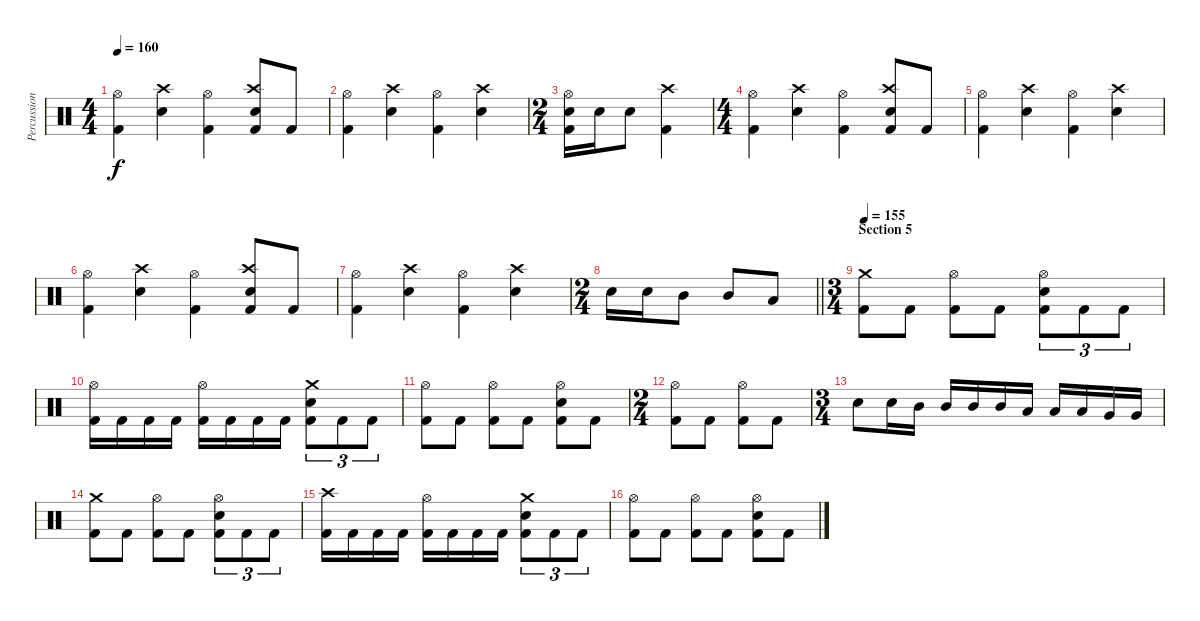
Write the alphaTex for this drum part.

\track ("Percussion" "Percussion") {instrument percussion}
\staff {score}
\articulation defaults
\ts (4 4)
\tempo 160
\clef neutral
\ks c
("Hi-Hat (open)" "Kick (hit) 2").4{dy f} ("Crash high (hit)" "Electric Snare (hit)").4 ("Hi-Hat (open)" "Kick (hit) 2").4 ("Crash high (hit)" "Electric Snare (hit)" "Kick (hit) 2").8 "Kick (hit) 2".8 |
("Hi-Hat (open)" "Kick (hit) 2").4 ("Crash high (hit)" "Electric Snare (hit)").4 ("Hi-Hat (open)" "Kick (hit) 2").4 ("Crash high (hit)" "Electric Snare (hit)").4 |
\ts (2 4)
("Hi-Hat (open)" "Electric Snare (hit)" "Kick (hit) 2").16 "Electric Snare (hit)".16 "Electric Snare (hit)".8 ("Crash high (hit)" "Kick (hit) 2").4 |
\ts (4 4)
("Hi-Hat (open)" "Kick (hit) 2").4 ("Crash high (hit)" "Electric Snare (hit)").4 ("Hi-Hat (open)" "Kick (hit) 2").4 ("Crash high (hit)" "Electric Snare (hit)" "Kick (hit) 2").8 "Kick (hit) 2".8 |
("Hi-Hat (open)" "Kick (hit) 2").4 ("Crash high (hit)" "Electric Snare (hit)").4 ("Hi-Hat (open)" "Kick (hit) 2").4 ("Crash high (hit)" "Electric Snare (hit)").4 |
("Hi-Hat (open)" "Kick (hit) 2").4 ("Crash high (hit)" "Electric Snare (hit)").4 ("Hi-Hat (open)" "Kick (hit) 2").4 ("Crash high (hit)" "Electric Snare (hit)" "Kick (hit) 2").8 "Kick (hit) 2".8 |
("Hi-Hat (open)" "Kick (hit) 2").4 ("Crash high (hit)" "Electric Snare (hit)").4 ("Hi-Hat (open)" "Kick (hit) 2").4 ("Crash high (hit)" "Electric Snare (hit)").4 |
\ts (2 4)
\barLineRight lightlight "Electric Snare (hit)".16 "Electric Snare (hit)".16 "Mid Tom (hit)".8 "Mid Tom (hit)".8 "Low Tom (hit)".8
|
\ts (3 4)
\section ("" "Section 5")
\tempo 155
("Crash medium (hit)" "Kick (hit) 2").8 "Kick (hit) 2".8 ("Hi-Hat (open)" "Kick (hit) 2").8 "Kick (hit) 2".8 ("Hi-Hat (open)" "Electric Snare (hit)" "Kick (hit) 2").8{tu (3 2)} "Kick (hit) 2".8{tu (3 2)} "Kick (hit) 2".8{tu (3 2)} |
("Hi-Hat (open)" "Kick (hit) 2").16 "Kick (hit) 2".16 "Kick (hit) 2".16 "Kick (hit) 2".16 ("Hi-Hat (open)" "Kick (hit) 2").16 "Kick (hit) 2".16 "Kick (hit) 2".16 "Kick (hit) 2".16 ("Crash medium (hit)" "Electric Snare (hit)" "Kick (hit) 2").8{tu (3 2)} "Kick (hit) 2".8{tu (3 2)} "Kick (hit) 2".8{tu (3 2)} |
("Hi-Hat (open)" "Kick (hit) 2").8 "Kick (hit) 2".8 ("Hi-Hat (open)" "Kick (hit) 2").8 "Kick (hit) 2".8 ("Hi-Hat (open)" "Electric Snare (hit)" "Kick (hit) 2").8 "Kick (hit) 2".8 |
\ts (2 4)
("Hi-Hat (open)" "Kick (hit) 2").8 "Kick (hit) 2".8 ("Hi-Hat (open)" "Kick (hit) 2").8 "Kick (hit) 2".8 |
\ts (3 4)
"Electric Snare (hit)".8 "Electric Snare (hit)".16 "Mid Tom (hit)".16 "Mid Tom (hit)".16 "Mid Tom (hit)".16 "Mid Tom (hit)".16 "Low Tom (hit)".16 "Low Tom (hit)".16 "Low Tom (hit)".16 "Very Low Tom (hit)".16 "Very Low Tom (hit)".16 |
("Crash medium (hit)" "Kick (hit) 2").8 "Kick (hit) 2".8 ("Hi-Hat (open)" "Kick (hit) 2").8 "Kick (hit) 2".8 ("Hi-Hat (open)" "Electric Snare (hit)" "Kick (hit) 2").8{tu (3 2)} "Kick (hit) 2".8{tu (3 2)} "Kick (hit) 2".8{tu (3 2)} |
("Crash high (hit)" "Kick (hit) 2").16 "Kick (hit) 2".16 "Kick (hit) 2".16 "Kick (hit) 2".16 ("Hi-Hat (open)" "Kick (hit) 2").16 "Kick (hit) 2".16 "Kick (hit) 2".16 "Kick (hit) 2".16 ("Crash medium (hit)" "Electric Snare (hit)" "Kick (hit) 2").8{tu (3 2)} "Kick (hit) 2".8{tu (3 2)} "Kick (hit) 2".8{tu (3 2)} |
("Hi-Hat (open)" "Kick (hit) 2").8 "Kick (hit) 2".8 ("Hi-Hat (open)" "Kick (hit) 2").8 "Kick (hit) 2".8 ("Hi-Hat (open)" "Electric Snare (hit)" "Kick (hit) 2").8 "Kick (hit) 2".8
